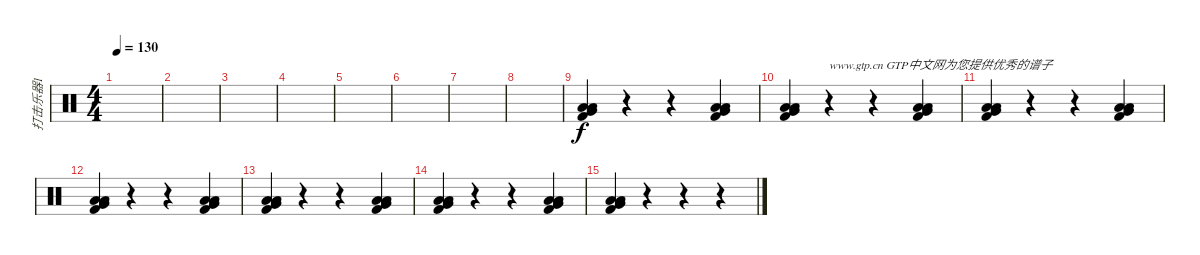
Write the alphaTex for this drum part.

\track ("打击乐器1" "打击乐器1") {instrument percussion}
\staff {score}
\articulation defaults
\ts (4 4)
\tempo 130
\clef neutral
\ks c
|
|
|
|
|
|
|
|
("Low Floor Tom (hit)" "Very Low Tom (hit)" "Low Tom (hit)" "Kick (hit) 2").4 r.4 r.4 ("Low Floor Tom (hit)" "Very Low Tom (hit)" "Low Tom (hit)" "Kick (hit) 2").4 |
("Low Floor Tom (hit)" "Very Low Tom (hit)" "Low Tom (hit)" "Kick (hit) 2").4 r.4{txt "www.gtp.cn GTP中文网为您提供优秀的谱子"} r.4 ("Low Floor Tom (hit)" "Very Low Tom (hit)" "Low Tom (hit)" "Kick (hit) 2").4 |
("Low Floor Tom (hit)" "Very Low Tom (hit)" "Low Tom (hit)" "Kick (hit) 2").4 r.4 r.4 ("Low Floor Tom (hit)" "Very Low Tom (hit)" "Low Tom (hit)" "Kick (hit) 2").4 |
("Low Floor Tom (hit)" "Very Low Tom (hit)" "Low Tom (hit)" "Kick (hit) 2").4 r.4 r.4 ("Low Floor Tom (hit)" "Very Low Tom (hit)" "Low Tom (hit)" "Kick (hit) 2").4 |
("Low Floor Tom (hit)" "Very Low Tom (hit)" "Low Tom (hit)" "Kick (hit) 2").4 r.4 r.4 ("Low Floor Tom (hit)" "Very Low Tom (hit)" "Low Tom (hit)" "Kick (hit) 2").4 |
("Low Floor Tom (hit)" "Very Low Tom (hit)" "Low Tom (hit)" "Kick (hit) 2").4 r.4 r.4 ("Low Floor Tom (hit)" "Very Low Tom (hit)" "Low Tom (hit)" "Kick (hit) 2").4 |
("Low Floor Tom (hit)" "Very Low Tom (hit)" "Low Tom (hit)" "Kick (hit) 2").4 r.4 r.4 r.4
